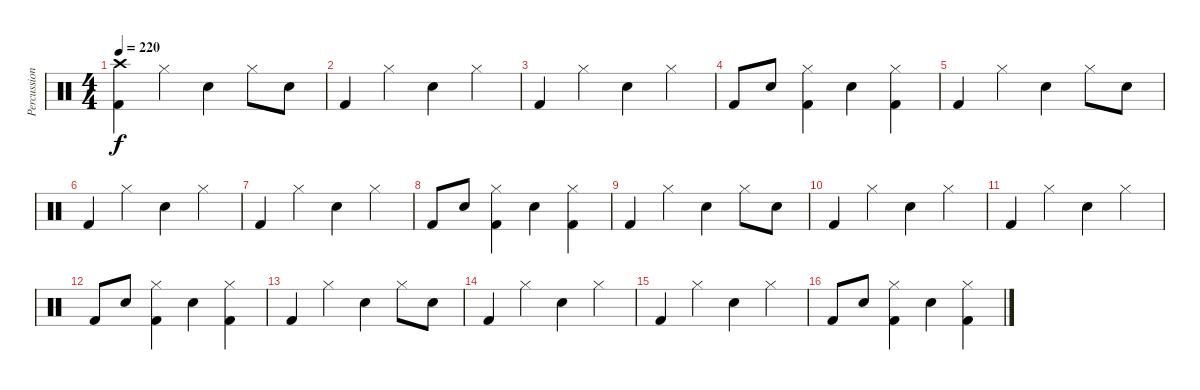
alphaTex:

\track ("Percussion" "Percussion") {instrument percussion}
\staff {score}
\articulation defaults
\ts (4 4)
\tempo 220
\clef neutral
\ks c
("Crash high (hit)" "Kick (hit) 2").4{dy f} "Hi-Hat (closed)".4 "Electric Snare (hit)".4 "Hi-Hat (closed)".8 "Electric Snare (hit)".8 |
"Kick (hit) 2".4 "Hi-Hat (closed)".4 "Electric Snare (hit)".4 "Hi-Hat (closed)".4 |
"Kick (hit) 2".4 "Hi-Hat (closed)".4 "Electric Snare (hit)".4 "Hi-Hat (closed)".4 |
"Kick (hit) 2".8 "Electric Snare (hit)".8 ("Hi-Hat (closed)" "Kick (hit) 2").4 "Electric Snare (hit)".4 ("Hi-Hat (closed)" "Kick (hit) 2").4 |
"Kick (hit) 2".4 "Hi-Hat (closed)".4 "Electric Snare (hit)".4 "Hi-Hat (closed)".8 "Electric Snare (hit)".8 |
"Kick (hit) 2".4 "Hi-Hat (closed)".4 "Electric Snare (hit)".4 "Hi-Hat (closed)".4 |
"Kick (hit) 2".4 "Hi-Hat (closed)".4 "Electric Snare (hit)".4 "Hi-Hat (closed)".4 |
"Kick (hit) 2".8 "Electric Snare (hit)".8 ("Hi-Hat (closed)" "Kick (hit) 2").4 "Electric Snare (hit)".4 ("Hi-Hat (closed)" "Kick (hit) 2").4 |
"Kick (hit) 2".4 "Hi-Hat (closed)".4 "Electric Snare (hit)".4 "Hi-Hat (closed)".8 "Electric Snare (hit)".8 |
"Kick (hit) 2".4 "Hi-Hat (closed)".4 "Electric Snare (hit)".4 "Hi-Hat (closed)".4 |
"Kick (hit) 2".4 "Hi-Hat (closed)".4 "Electric Snare (hit)".4 "Hi-Hat (closed)".4 |
"Kick (hit) 2".8 "Electric Snare (hit)".8 ("Hi-Hat (closed)" "Kick (hit) 2").4 "Electric Snare (hit)".4 ("Hi-Hat (closed)" "Kick (hit) 2").4 |
"Kick (hit) 2".4 "Hi-Hat (closed)".4 "Electric Snare (hit)".4 "Hi-Hat (closed)".8 "Electric Snare (hit)".8 |
"Kick (hit) 2".4 "Hi-Hat (closed)".4 "Electric Snare (hit)".4 "Hi-Hat (closed)".4 |
"Kick (hit) 2".4 "Hi-Hat (closed)".4 "Electric Snare (hit)".4 "Hi-Hat (closed)".4 |
"Kick (hit) 2".8 "Electric Snare (hit)".8 ("Hi-Hat (closed)" "Kick (hit) 2").4 "Electric Snare (hit)".4 ("Hi-Hat (closed)" "Kick (hit) 2").4
